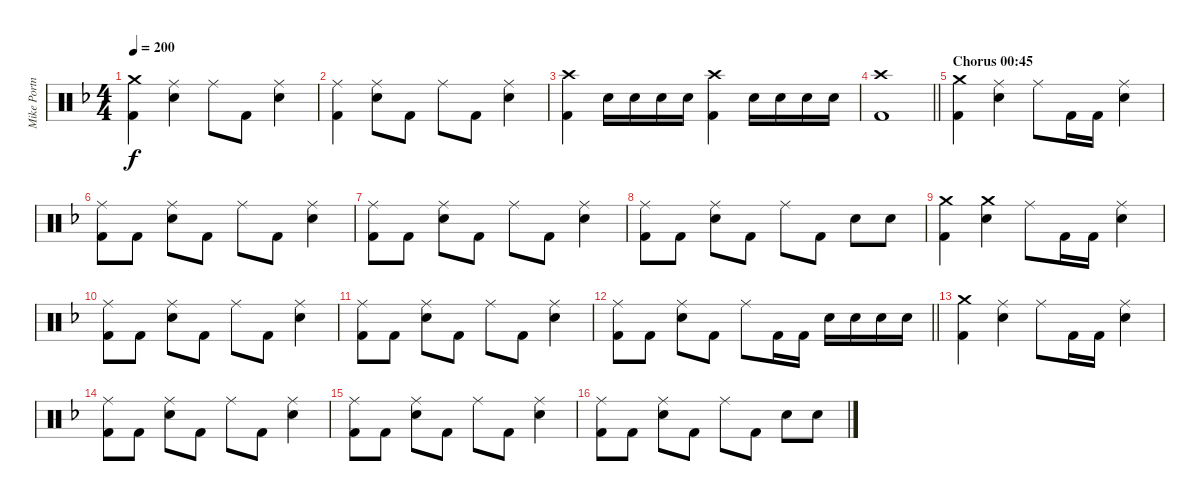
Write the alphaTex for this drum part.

\track ("Mike Portnoy (Drums)" "Mike Portn") {instrument percussion}
\staff {score}
\articulation defaults
\ts (4 4)
\tempo 200
\clef neutral
\ks f
("Crash medium (hit)" "Kick (hit) 2").4{dy f} ("Ride (middle)" "Electric Snare (hit)").4 "Ride (middle)".8 "Kick (hit) 2".8 ("Ride (middle)" "Electric Snare (hit)").4 |
("Ride (middle)" "Kick (hit) 2").4 ("Ride (middle)" "Electric Snare (hit)").8 "Kick (hit) 2".8 "Ride (middle)".8 "Kick (hit) 2".8 ("Ride (middle)" "Electric Snare (hit)").4 |
("Crash high (hit)" "Kick (hit) 2").4 "Electric Snare (hit)".16 "Electric Snare (hit)".16 "Electric Snare (hit)".16 "Electric Snare (hit)".16 ("Crash high (hit)" "Kick (hit) 2").4 "Electric Snare (hit)".16 "Electric Snare (hit)".16 "Electric Snare (hit)".16 "Electric Snare (hit)".16 |
\barLineRight lightlight
("Crash high (hit)" "Kick (hit) 2").1 |
\section ("" "Chorus 00:45")
("Crash medium (hit)" "Kick (hit) 2").4 ("Ride (middle)" "Electric Snare (hit)").4 "Ride (middle)".8 "Kick (hit) 2".16 "Kick (hit) 2".16 ("Ride (middle)" "Electric Snare (hit)").4 |
("Ride (middle)" "Kick (hit) 2").8 "Kick (hit) 2".8 ("Ride (middle)" "Electric Snare (hit)").8 "Kick (hit) 2".8 "Ride (middle)".8 "Kick (hit) 2".8 ("Ride (middle)" "Electric Snare (hit)").4 |
("Ride (middle)" "Kick (hit) 2").8 "Kick (hit) 2".8 ("Ride (middle)" "Electric Snare (hit)").8 "Kick (hit) 2".8 "Ride (middle)".8 "Kick (hit) 2".8 ("Ride (middle)" "Electric Snare (hit)").4 |
("Ride (middle)" "Kick (hit) 2").8 "Kick (hit) 2".8 ("Ride (middle)" "Electric Snare (hit)").8 "Kick (hit) 2".8 "Ride (middle)".8 "Kick (hit) 2".8 "Electric Snare (hit)".8 "Electric Snare (hit)".8 |
("Crash medium (hit)" "Kick (hit) 2").4 ("Crash medium (hit)" "Electric Snare (hit)").4 "Ride (middle)".8 "Kick (hit) 2".16 "Kick (hit) 2".16 ("Ride (middle)" "Electric Snare (hit)").4 |
("Ride (middle)" "Kick (hit) 2").8 "Kick (hit) 2".8 ("Ride (middle)" "Electric Snare (hit)").8 "Kick (hit) 2".8 "Ride (middle)".8 "Kick (hit) 2".8 ("Ride (middle)" "Electric Snare (hit)").4 |
("Ride (middle)" "Kick (hit) 2").8 "Kick (hit) 2".8 ("Ride (middle)" "Electric Snare (hit)").8 "Kick (hit) 2".8 "Ride (middle)".8 "Kick (hit) 2".8 ("Ride (middle)" "Electric Snare (hit)").4 |
\barLineRight lightlight
("Ride (middle)" "Kick (hit) 2").8 "Kick (hit) 2".8 ("Ride (middle)" "Electric Snare (hit)").8 "Kick (hit) 2".8 "Ride (middle)".8 "Kick (hit) 2".16 "Kick (hit) 2".16 "Electric Snare (hit)".16 "Electric Snare (hit)".16 "Electric Snare (hit)".16 "Electric Snare (hit)".16 |
\section ("" "")
("Crash medium (hit)" "Kick (hit) 2").4 ("Ride (middle)" "Electric Snare (hit)").4 "Ride (middle)".8 "Kick (hit) 2".16 "Kick (hit) 2".16 ("Ride (middle)" "Electric Snare (hit)").4 |
("Ride (middle)" "Kick (hit) 2").8 "Kick (hit) 2".8 ("Ride (middle)" "Electric Snare (hit)").8 "Kick (hit) 2".8 "Ride (middle)".8 "Kick (hit) 2".8 ("Ride (middle)" "Electric Snare (hit)").4 |
("Ride (middle)" "Kick (hit) 2").8 "Kick (hit) 2".8 ("Ride (middle)" "Electric Snare (hit)").8 "Kick (hit) 2".8 "Ride (middle)".8 "Kick (hit) 2".8 ("Ride (middle)" "Electric Snare (hit)").4 |
("Ride (middle)" "Kick (hit) 2").8 "Kick (hit) 2".8 ("Ride (middle)" "Electric Snare (hit)").8 "Kick (hit) 2".8 "Ride (middle)".8 "Kick (hit) 2".8 "Electric Snare (hit)".8 "Electric Snare (hit)".8
